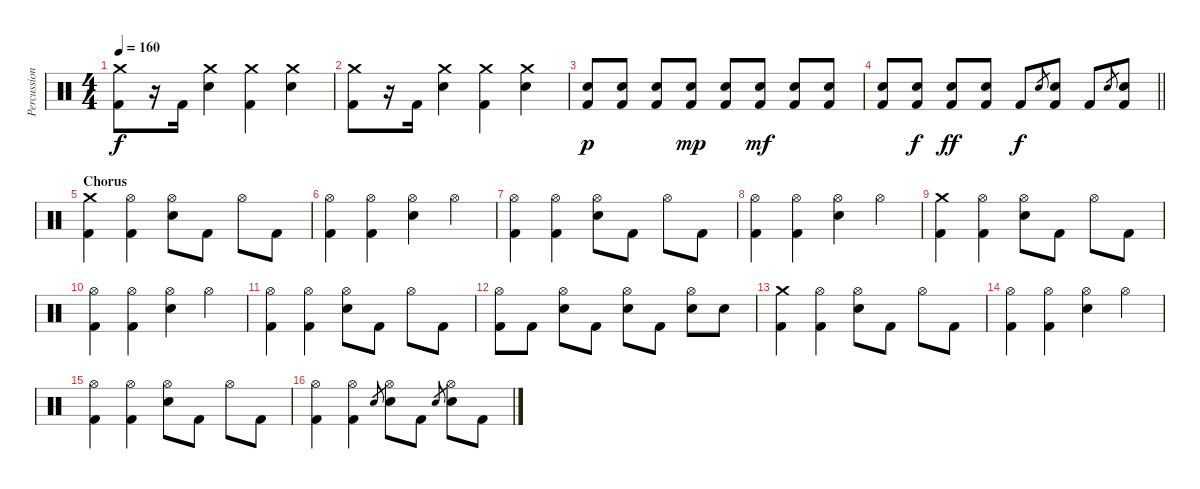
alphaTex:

\track ("Percussion" "Percussion") {instrument percussion}
\staff {score}
\articulation defaults
\ts (4 4)
\tempo 160
\clef neutral
\ks c
("Crash medium (hit)" "Kick (hit) 2").8{dy f} r.16 "Kick (hit) 2".16 ("Crash medium (hit)" "Electric Snare (hit)").4 ("Crash medium (hit)" "Kick (hit) 2").4 ("Crash medium (hit)" "Electric Snare (hit)").4 |
("Crash medium (hit)" "Kick (hit) 2").8 r.16 "Kick (hit) 2".16 ("Crash medium (hit)" "Electric Snare (hit)").4 ("Crash medium (hit)" "Kick (hit) 2").4 ("Crash medium (hit)" "Electric Snare (hit)").4 |
("Electric Snare (hit)" "Kick (hit) 2").8{dy p} ("Electric Snare (hit)" "Kick (hit) 2").8 ("Electric Snare (hit)" "Kick (hit) 2").8 ("Electric Snare (hit)" "Kick (hit) 2").8{dy mp} ("Electric Snare (hit)" "Kick (hit) 2").8 ("Electric Snare (hit)" "Kick (hit) 2").8{dy mf} ("Electric Snare (hit)" "Kick (hit) 2").8 ("Electric Snare (hit)" "Kick (hit) 2").8 |
\barLineRight lightlight
("Electric Snare (hit)" "Kick (hit) 2").8 ("Electric Snare (hit)" "Kick (hit) 2").8{dy f} ("Electric Snare (hit)" "Kick (hit) 2").8{dy ff} ("Electric Snare (hit)" "Kick (hit) 2").8 "Kick (hit) 2".8{dy f} "Electric Snare (hit)".8{gr} ("Electric Snare (hit)" "Kick (hit) 2").8 "Kick (hit) 2".8 "Electric Snare (hit)".8{gr} ("Electric Snare (hit)" "Kick (hit) 2").8 |
\section ("" "Chorus")
("Crash medium (hit)" "Kick (hit) 2").4 ("Hi-Hat (open)" "Kick (hit) 2").4 ("Electric Snare (hit)" "Hi-Hat (open)").8 "Kick (hit) 2".8 "Hi-Hat (open)".8 "Kick (hit) 2".8 |
("Hi-Hat (open)" "Kick (hit) 2").4 ("Hi-Hat (open)" "Kick (hit) 2").4 ("Electric Snare (hit)" "Hi-Hat (open)").4 "Hi-Hat (open)".4 |
("Hi-Hat (open)" "Kick (hit) 2").4 ("Hi-Hat (open)" "Kick (hit) 2").4 ("Electric Snare (hit)" "Hi-Hat (open)").8 "Kick (hit) 2".8 "Hi-Hat (open)".8 "Kick (hit) 2".8 |
("Hi-Hat (open)" "Kick (hit) 2").4 ("Hi-Hat (open)" "Kick (hit) 2").4 ("Electric Snare (hit)" "Hi-Hat (open)").4 "Hi-Hat (open)".4 |
("Crash medium (hit)" "Kick (hit) 2").4 ("Hi-Hat (open)" "Kick (hit) 2").4 ("Electric Snare (hit)" "Hi-Hat (open)").8 "Kick (hit) 2".8 "Hi-Hat (open)".8 "Kick (hit) 2".8 |
("Hi-Hat (open)" "Kick (hit) 2").4 ("Hi-Hat (open)" "Kick (hit) 2").4 ("Electric Snare (hit)" "Hi-Hat (open)").4 "Hi-Hat (open)".4 |
("Hi-Hat (open)" "Kick (hit) 2").4 ("Hi-Hat (open)" "Kick (hit) 2").4 ("Electric Snare (hit)" "Hi-Hat (open)").8 "Kick (hit) 2".8 "Hi-Hat (open)".8 "Kick (hit) 2".8 |
("Hi-Hat (open)" "Kick (hit) 2").8 "Kick (hit) 2".8 ("Hi-Hat (open)" "Electric Snare (hit)").8 "Kick (hit) 2".8 ("Hi-Hat (open)" "Electric Snare (hit)").8 "Kick (hit) 2".8 ("Hi-Hat (open)" "Electric Snare (hit)").8 "Electric Snare (hit)".8 |
("Crash medium (hit)" "Kick (hit) 2").4 ("Hi-Hat (open)" "Kick (hit) 2").4 ("Electric Snare (hit)" "Hi-Hat (open)").8 "Kick (hit) 2".8 "Hi-Hat (open)".8 "Kick (hit) 2".8 |
("Hi-Hat (open)" "Kick (hit) 2").4 ("Hi-Hat (open)" "Kick (hit) 2").4 ("Electric Snare (hit)" "Hi-Hat (open)").4 "Hi-Hat (open)".4 |
("Hi-Hat (open)" "Kick (hit) 2").4 ("Hi-Hat (open)" "Kick (hit) 2").4 ("Electric Snare (hit)" "Hi-Hat (open)").8 "Kick (hit) 2".8 "Hi-Hat (open)".8 "Kick (hit) 2".8 |
("Hi-Hat (open)" "Kick (hit) 2").4 ("Hi-Hat (open)" "Kick (hit) 2").4 "Electric Snare (hit)".8{gr} ("Electric Snare (hit)" "Hi-Hat (open)").8 "Kick (hit) 2".8 "Electric Snare (hit)".8{gr} ("Hi-Hat (open)" "Electric Snare (hit)").8 "Kick (hit) 2".8
